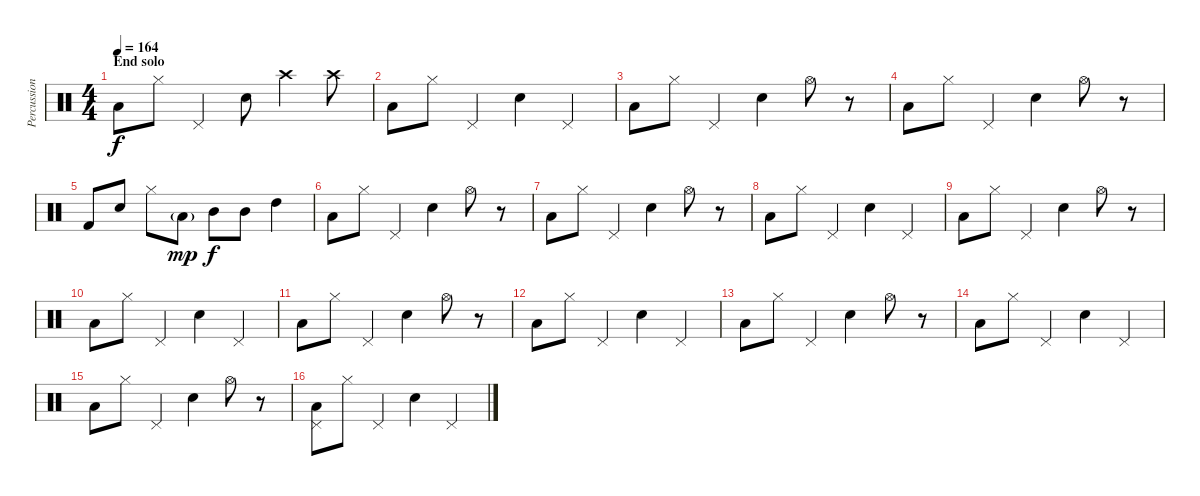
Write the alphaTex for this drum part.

\track ("Percussion" "Percussion") {instrument percussion}
\staff {score}
\articulation defaults
\ts (4 4)
\section ("" "End solo")
\tempo 164
\clef neutral
\ks c "Low Tom (hit)".8{dy f} "Hi-Hat (closed)".8 "Pedal Hi-Hat (hit)".4 "Snare (hit) 2".8 "Crash high (hit)".4 "Crash high (hit)".8
|
"Low Tom (hit)".8 "Hi-Hat (closed)".8 "Pedal Hi-Hat (hit)".4 "Snare (hit) 2".4 "Pedal Hi-Hat (hit)".4 |
"Low Tom (hit)".8 "Hi-Hat (closed)".8 "Pedal Hi-Hat (hit)".4 "Snare (hit) 2".4 "Hi-Hat (open)".8 r.8 |
"Low Tom (hit)".8 "Hi-Hat (closed)".8 "Pedal Hi-Hat (hit)".4 "Snare (hit) 2".4 "Hi-Hat (open)".8 r.8 |
"Kick (hit) 2".8 "Snare (hit) 2".8 "Hi-Hat (closed)".8 "Low Tom (hit)"{g}.8{dy mp} "Mid Tom (hit)".8{dy f} "Mid Tom (hit)".8 "High Tom (hit)".4 |
"Low Tom (hit)".8{volume 10} "Hi-Hat (closed)".8 "Pedal Hi-Hat (hit)".4 "Snare (hit) 2".4 "Hi-Hat (open)".8 r.8 |
"Low Tom (hit)".8 "Hi-Hat (closed)".8 "Pedal Hi-Hat (hit)".4 "Snare (hit) 2".4 "Hi-Hat (open)".8 r.8 |
"Low Tom (hit)".8{volume 7} "Hi-Hat (closed)".8 "Pedal Hi-Hat (hit)".4 "Snare (hit) 2".4 "Pedal Hi-Hat (hit)".4 |
"Low Tom (hit)".8{volume 5} "Hi-Hat (closed)".8 "Pedal Hi-Hat (hit)".4 "Snare (hit) 2".4 "Hi-Hat (open)".8 r.8 |
"Low Tom (hit)".8 "Hi-Hat (closed)".8 "Pedal Hi-Hat (hit)".4 "Snare (hit) 2".4 "Pedal Hi-Hat (hit)".4 |
"Low Tom (hit)".8 "Hi-Hat (closed)".8 "Pedal Hi-Hat (hit)".4 "Snare (hit) 2".4 "Hi-Hat (open)".8 r.8 |
"Low Tom (hit)".8{volume 3} "Hi-Hat (closed)".8 "Pedal Hi-Hat (hit)".4 "Snare (hit) 2".4 "Pedal Hi-Hat (hit)".4 |
"Low Tom (hit)".8 "Hi-Hat (closed)".8 "Pedal Hi-Hat (hit)".4 "Snare (hit) 2".4 "Hi-Hat (open)".8 r.8{volume 2} |
"Low Tom (hit)".8 "Hi-Hat (closed)".8 "Pedal Hi-Hat (hit)".4 "Snare (hit) 2".4 "Pedal Hi-Hat (hit)".4 |
"Low Tom (hit)".8 "Hi-Hat (closed)".8 "Pedal Hi-Hat (hit)".4 "Snare (hit) 2".4 "Hi-Hat (open)".8 r.8 |
("Low Tom (hit)" "Pedal Hi-Hat (hit)").8 "Hi-Hat (closed)".8 "Pedal Hi-Hat (hit)".4 "Snare (hit) 2".4 "Pedal Hi-Hat (hit)".4
